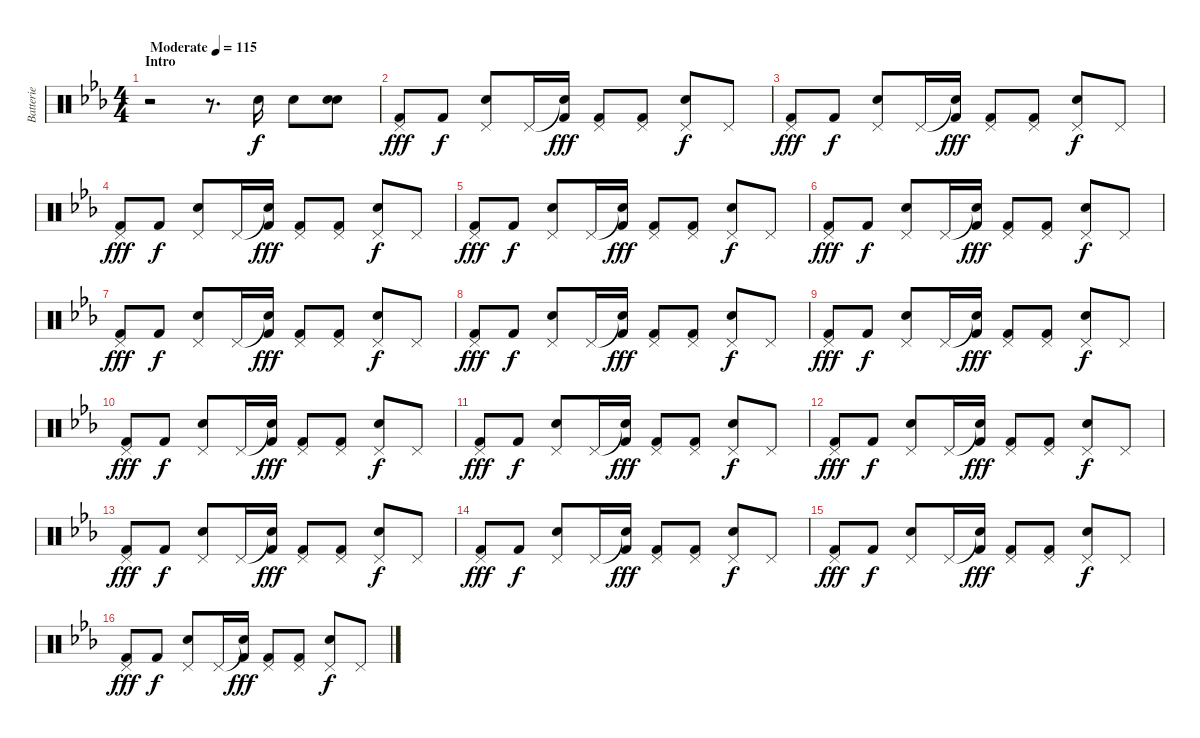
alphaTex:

\track ("Batterie" "Batterie") {instrument percussion}
\staff {score}
\articulation defaults
\ts (4 4)
\section ("" "Intro")
\tempo (115 "Moderate")
\clef neutral
\ks eb
r.2{dy f} r.8{d} "Electric Snare (hit)".16 "Electric Snare (hit)".8 ("Snare (hit) 2" "Electric Snare (hit)").8 |
("Pedal Hi-Hat (hit)" "Kick (hit) 2").8{dy fff} "Kick (hit) 2".8{dy f} ("Pedal Hi-Hat (hit)" "Snare (hit) 2").8 "Pedal Hi-Hat (hit)".16 ("Snare (hit)"{t} "Kick (hit) 2").16{dy fff} ("Pedal Hi-Hat (hit)" "Kick (hit) 2").8 ("Pedal Hi-Hat (hit)" "Kick (hit) 2").8 ("Pedal Hi-Hat (hit)" "Snare (hit) 2").8{dy f} "Pedal Hi-Hat (hit)".8 |
("Pedal Hi-Hat (hit)" "Kick (hit) 2").8{dy fff} "Kick (hit) 2".8{dy f} ("Pedal Hi-Hat (hit)" "Snare (hit) 2").8 "Pedal Hi-Hat (hit)".16 ("Snare (hit)"{t} "Kick (hit) 2").16{dy fff} ("Pedal Hi-Hat (hit)" "Kick (hit) 2").8 ("Pedal Hi-Hat (hit)" "Kick (hit) 2").8 ("Pedal Hi-Hat (hit)" "Snare (hit) 2").8{dy f} "Pedal Hi-Hat (hit)".8 |
("Pedal Hi-Hat (hit)" "Kick (hit) 2").8{dy fff} "Kick (hit) 2".8{dy f} ("Pedal Hi-Hat (hit)" "Snare (hit) 2").8 "Pedal Hi-Hat (hit)".16 ("Snare (hit)"{t} "Kick (hit) 2").16{dy fff} ("Pedal Hi-Hat (hit)" "Kick (hit) 2").8 ("Pedal Hi-Hat (hit)" "Kick (hit) 2").8 ("Pedal Hi-Hat (hit)" "Snare (hit) 2").8{dy f} "Pedal Hi-Hat (hit)".8 |
("Pedal Hi-Hat (hit)" "Kick (hit) 2").8{dy fff} "Kick (hit) 2".8{dy f} ("Pedal Hi-Hat (hit)" "Snare (hit) 2").8 "Pedal Hi-Hat (hit)".16 ("Snare (hit)"{t} "Kick (hit) 2").16{dy fff} ("Pedal Hi-Hat (hit)" "Kick (hit) 2").8 ("Pedal Hi-Hat (hit)" "Kick (hit) 2").8 ("Pedal Hi-Hat (hit)" "Snare (hit) 2").8{dy f} "Pedal Hi-Hat (hit)".8 |
("Pedal Hi-Hat (hit)" "Kick (hit) 2").8{dy fff} "Kick (hit) 2".8{dy f} ("Pedal Hi-Hat (hit)" "Snare (hit) 2").8 "Pedal Hi-Hat (hit)".16 ("Snare (hit)"{t} "Kick (hit) 2").16{dy fff} ("Pedal Hi-Hat (hit)" "Kick (hit) 2").8 ("Pedal Hi-Hat (hit)" "Kick (hit) 2").8 ("Pedal Hi-Hat (hit)" "Snare (hit) 2").8{dy f} "Pedal Hi-Hat (hit)".8 |
("Pedal Hi-Hat (hit)" "Kick (hit) 2").8{dy fff} "Kick (hit) 2".8{dy f} ("Pedal Hi-Hat (hit)" "Snare (hit) 2").8 "Pedal Hi-Hat (hit)".16 ("Snare (hit)"{t} "Kick (hit) 2").16{dy fff} ("Pedal Hi-Hat (hit)" "Kick (hit) 2").8 ("Pedal Hi-Hat (hit)" "Kick (hit) 2").8 ("Pedal Hi-Hat (hit)" "Snare (hit) 2").8{dy f} "Pedal Hi-Hat (hit)".8 |
("Pedal Hi-Hat (hit)" "Kick (hit) 2").8{dy fff} "Kick (hit) 2".8{dy f} ("Pedal Hi-Hat (hit)" "Snare (hit) 2").8 "Pedal Hi-Hat (hit)".16 ("Snare (hit)"{t} "Kick (hit) 2").16{dy fff} ("Pedal Hi-Hat (hit)" "Kick (hit) 2").8 ("Pedal Hi-Hat (hit)" "Kick (hit) 2").8 ("Pedal Hi-Hat (hit)" "Snare (hit) 2").8{dy f} "Pedal Hi-Hat (hit)".8 |
("Pedal Hi-Hat (hit)" "Kick (hit) 2").8{dy fff} "Kick (hit) 2".8{dy f} ("Pedal Hi-Hat (hit)" "Snare (hit) 2").8 "Pedal Hi-Hat (hit)".16 ("Snare (hit)"{t} "Kick (hit) 2").16{dy fff} ("Pedal Hi-Hat (hit)" "Kick (hit) 2").8 ("Pedal Hi-Hat (hit)" "Kick (hit) 2").8 ("Pedal Hi-Hat (hit)" "Snare (hit) 2").8{dy f} "Pedal Hi-Hat (hit)".8 |
("Pedal Hi-Hat (hit)" "Kick (hit) 2").8{dy fff} "Kick (hit) 2".8{dy f} ("Pedal Hi-Hat (hit)" "Snare (hit) 2").8 "Pedal Hi-Hat (hit)".16 ("Snare (hit)"{t} "Kick (hit) 2").16{dy fff} ("Pedal Hi-Hat (hit)" "Kick (hit) 2").8 ("Pedal Hi-Hat (hit)" "Kick (hit) 2").8 ("Pedal Hi-Hat (hit)" "Snare (hit) 2").8{dy f} "Pedal Hi-Hat (hit)".8 |
("Pedal Hi-Hat (hit)" "Kick (hit) 2").8{dy fff} "Kick (hit) 2".8{dy f} ("Pedal Hi-Hat (hit)" "Snare (hit) 2").8 "Pedal Hi-Hat (hit)".16 ("Snare (hit)"{t} "Kick (hit) 2").16{dy fff} ("Pedal Hi-Hat (hit)" "Kick (hit) 2").8 ("Pedal Hi-Hat (hit)" "Kick (hit) 2").8 ("Pedal Hi-Hat (hit)" "Snare (hit) 2").8{dy f} "Pedal Hi-Hat (hit)".8 |
("Pedal Hi-Hat (hit)" "Kick (hit) 2").8{dy fff} "Kick (hit) 2".8{dy f} ("Pedal Hi-Hat (hit)" "Snare (hit) 2").8 "Pedal Hi-Hat (hit)".16 ("Snare (hit)"{t} "Kick (hit) 2").16{dy fff} ("Pedal Hi-Hat (hit)" "Kick (hit) 2").8 ("Pedal Hi-Hat (hit)" "Kick (hit) 2").8 ("Pedal Hi-Hat (hit)" "Snare (hit) 2").8{dy f} "Pedal Hi-Hat (hit)".8 |
("Pedal Hi-Hat (hit)" "Kick (hit) 2").8{dy fff} "Kick (hit) 2".8{dy f} ("Pedal Hi-Hat (hit)" "Snare (hit) 2").8 "Pedal Hi-Hat (hit)".16 ("Snare (hit)"{t} "Kick (hit) 2").16{dy fff} ("Pedal Hi-Hat (hit)" "Kick (hit) 2").8 ("Pedal Hi-Hat (hit)" "Kick (hit) 2").8 ("Pedal Hi-Hat (hit)" "Snare (hit) 2").8{dy f} "Pedal Hi-Hat (hit)".8 |
("Pedal Hi-Hat (hit)" "Kick (hit) 2").8{dy fff} "Kick (hit) 2".8{dy f} ("Pedal Hi-Hat (hit)" "Snare (hit) 2").8 "Pedal Hi-Hat (hit)".16 ("Snare (hit)"{t} "Kick (hit) 2").16{dy fff} ("Pedal Hi-Hat (hit)" "Kick (hit) 2").8 ("Pedal Hi-Hat (hit)" "Kick (hit) 2").8 ("Pedal Hi-Hat (hit)" "Snare (hit) 2").8{dy f} "Pedal Hi-Hat (hit)".8 |
("Pedal Hi-Hat (hit)" "Kick (hit) 2").8{dy fff} "Kick (hit) 2".8{dy f} ("Pedal Hi-Hat (hit)" "Snare (hit) 2").8 "Pedal Hi-Hat (hit)".16 ("Snare (hit)"{t} "Kick (hit) 2").16{dy fff} ("Pedal Hi-Hat (hit)" "Kick (hit) 2").8 ("Pedal Hi-Hat (hit)" "Kick (hit) 2").8 ("Pedal Hi-Hat (hit)" "Snare (hit) 2").8{dy f} "Pedal Hi-Hat (hit)".8 |
("Pedal Hi-Hat (hit)" "Kick (hit) 2").8{dy fff} "Kick (hit) 2".8{dy f} ("Pedal Hi-Hat (hit)" "Snare (hit) 2").8 "Pedal Hi-Hat (hit)".16 ("Snare (hit)"{t} "Kick (hit) 2").16{dy fff} ("Pedal Hi-Hat (hit)" "Kick (hit) 2").8 ("Pedal Hi-Hat (hit)" "Kick (hit) 2").8 ("Pedal Hi-Hat (hit)" "Snare (hit) 2").8{dy f} "Pedal Hi-Hat (hit)".8
